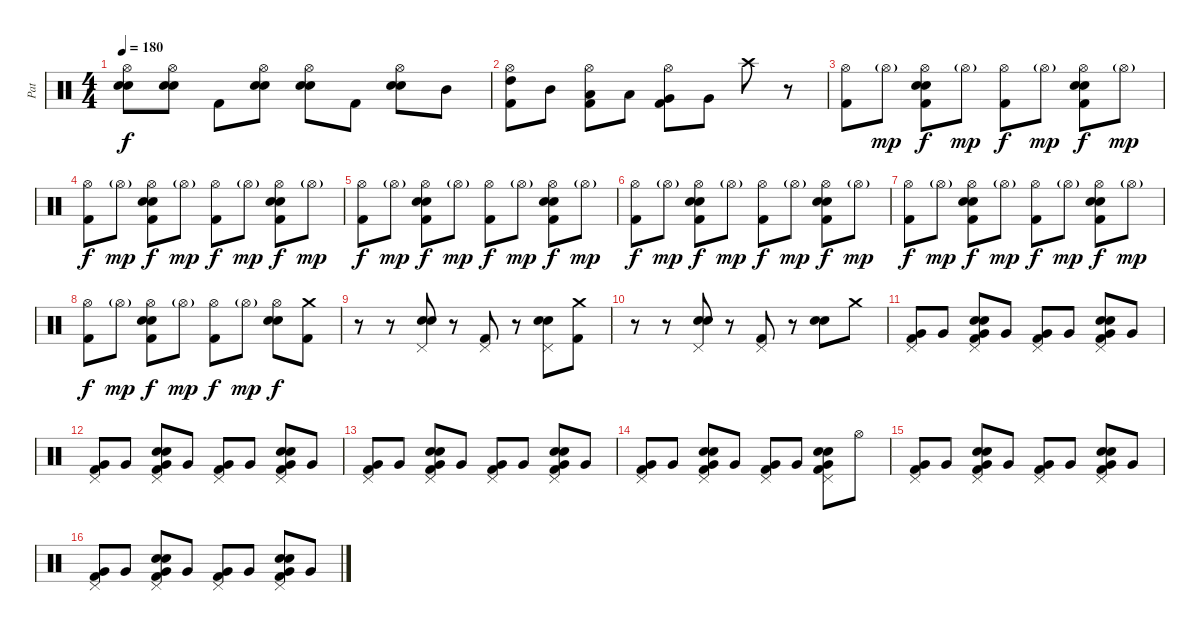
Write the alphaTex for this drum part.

\track ("Pat" "Pat") {instrument percussion}
\staff {score}
\articulation defaults
\ts (4 4)
\tempo 180
\clef neutral
\ks c
("Snare (hit) 2" "Electric Snare (hit)" "Hi-Hat (open)").8{dy f} ("Snare (hit) 2" "Electric Snare (hit)" "Hi-Hat (open)").8 "Kick (hit) 2".8 ("Snare (hit) 2" "Electric Snare (hit)" "Hi-Hat (open)").8 ("Snare (hit) 2" "Electric Snare (hit)" "Hi-Hat (open)").8 "Kick (hit) 2".8 ("Snare (hit) 2" "Electric Snare (hit)" "Hi-Hat (open)").8 "Mid Tom (hit)".8 |
("High Tom (hit)" "Hi-Hat (open)" "Kick (hit) 2").8 "Mid Tom (hit)".8 ("Hi-Hat (open)" "Low Tom (hit)" "Kick (hit) 2").8 "Low Tom (hit)".8 ("Hi-Hat (open)" "Very Low Tom (hit)" "Kick (hit) 2").8 "Very Low Tom (hit)".8 "Crash high (hit)".8 r.8 |
("Hi-Hat (open)" "Kick (hit) 2").8 "Hi-Hat (open)"{g}.8{dy mp} ("Hi-Hat (open)" "Snare (hit) 2" "Electric Snare (hit)" "Kick (hit) 2").8{dy f} "Hi-Hat (open)"{g}.8{dy mp} ("Hi-Hat (open)" "Kick (hit) 2").8{dy f} "Hi-Hat (open)"{g}.8{dy mp} ("Hi-Hat (open)" "Snare (hit) 2" "Electric Snare (hit)" "Kick (hit) 2").8{dy f} "Hi-Hat (open)"{g}.8{dy mp} |
("Hi-Hat (open)" "Kick (hit) 2").8{dy f} "Hi-Hat (open)"{g}.8{dy mp} ("Hi-Hat (open)" "Snare (hit) 2" "Electric Snare (hit)" "Kick (hit) 2").8{dy f} "Hi-Hat (open)"{g}.8{dy mp} ("Hi-Hat (open)" "Kick (hit) 2").8{dy f} "Hi-Hat (open)"{g}.8{dy mp} ("Hi-Hat (open)" "Snare (hit) 2" "Electric Snare (hit)" "Kick (hit) 2").8{dy f} "Hi-Hat (open)"{g}.8{dy mp} |
("Hi-Hat (open)" "Kick (hit) 2").8{dy f} "Hi-Hat (open)"{g}.8{dy mp} ("Hi-Hat (open)" "Snare (hit) 2" "Electric Snare (hit)" "Kick (hit) 2").8{dy f} "Hi-Hat (open)"{g}.8{dy mp} ("Hi-Hat (open)" "Kick (hit) 2").8{dy f} "Hi-Hat (open)"{g}.8{dy mp} ("Hi-Hat (open)" "Snare (hit) 2" "Electric Snare (hit)" "Kick (hit) 2").8{dy f} "Hi-Hat (open)"{g}.8{dy mp} |
("Hi-Hat (open)" "Kick (hit) 2").8{dy f} "Hi-Hat (open)"{g}.8{dy mp} ("Hi-Hat (open)" "Snare (hit) 2" "Electric Snare (hit)" "Kick (hit) 2").8{dy f} "Hi-Hat (open)"{g}.8{dy mp} ("Hi-Hat (open)" "Kick (hit) 2").8{dy f} "Hi-Hat (open)"{g}.8{dy mp} ("Hi-Hat (open)" "Snare (hit) 2" "Electric Snare (hit)" "Kick (hit) 2").8{dy f} "Hi-Hat (open)"{g}.8{dy mp} |
("Hi-Hat (open)" "Kick (hit) 2").8{dy f} "Hi-Hat (open)"{g}.8{dy mp} ("Hi-Hat (open)" "Snare (hit) 2" "Electric Snare (hit)" "Kick (hit) 2").8{dy f} "Hi-Hat (open)"{g}.8{dy mp} ("Hi-Hat (open)" "Kick (hit) 2").8{dy f} "Hi-Hat (open)"{g}.8{dy mp} ("Hi-Hat (open)" "Snare (hit) 2" "Electric Snare (hit)" "Kick (hit) 2").8{dy f} "Hi-Hat (open)"{g}.8{dy mp} |
("Hi-Hat (open)" "Kick (hit) 2").8{dy f} "Hi-Hat (open)"{g}.8{dy mp} ("Hi-Hat (open)" "Snare (hit) 2" "Electric Snare (hit)" "Kick (hit) 2").8{dy f} "Hi-Hat (open)"{g}.8{dy mp} ("Hi-Hat (open)" "Kick (hit) 2").8{dy f} "Hi-Hat (open)"{g}.8{dy mp} ("Hi-Hat (open)" "Snare (hit) 2" "Electric Snare (hit)").8{dy f} ("Crash medium (hit)" "Kick (hit) 2").8 |
r.8 r.8 ("Pedal Hi-Hat (hit)" "Snare (hit) 2" "Electric Snare (hit)").8 r.8 ("Pedal Hi-Hat (hit)" "Kick (hit) 2").8 r.8 ("Pedal Hi-Hat (hit)" "Snare (hit) 2" "Electric Snare (hit)").8 ("Crash medium (hit)" "Kick (hit) 2").8 |
r.8 r.8 ("Pedal Hi-Hat (hit)" "Snare (hit) 2" "Electric Snare (hit)").8 r.8 ("Pedal Hi-Hat (hit)" "Kick (hit) 2").8 r.8 ("Snare (hit) 2" "Electric Snare (hit)").8 "Crash medium (hit)".8 |
("Pedal Hi-Hat (hit)" "Very Low Tom (hit)" "Kick (hit) 2").8 "Very Low Tom (hit)".8 ("Pedal Hi-Hat (hit)" "Very Low Tom (hit)" "Snare (hit) 2" "Electric Snare (hit)" "Kick (hit) 2").8 "Very Low Tom (hit)".8 ("Pedal Hi-Hat (hit)" "Very Low Tom (hit)" "Kick (hit) 2").8 "Very Low Tom (hit)".8 ("Pedal Hi-Hat (hit)" "Very Low Tom (hit)" "Snare (hit) 2" "Electric Snare (hit)" "Kick (hit) 2").8 "Very Low Tom (hit)".8 |
("Pedal Hi-Hat (hit)" "Very Low Tom (hit)" "Kick (hit) 2").8 "Very Low Tom (hit)".8 ("Pedal Hi-Hat (hit)" "Very Low Tom (hit)" "Snare (hit) 2" "Electric Snare (hit)" "Kick (hit) 2").8 "Very Low Tom (hit)".8 ("Pedal Hi-Hat (hit)" "Very Low Tom (hit)" "Kick (hit) 2").8 "Very Low Tom (hit)".8 ("Pedal Hi-Hat (hit)" "Very Low Tom (hit)" "Snare (hit) 2" "Electric Snare (hit)" "Kick (hit) 2").8 "Very Low Tom (hit)".8 |
("Pedal Hi-Hat (hit)" "Very Low Tom (hit)" "Kick (hit) 2").8 "Very Low Tom (hit)".8 ("Pedal Hi-Hat (hit)" "Very Low Tom (hit)" "Snare (hit) 2" "Electric Snare (hit)" "Kick (hit) 2").8 "Very Low Tom (hit)".8 ("Pedal Hi-Hat (hit)" "Very Low Tom (hit)" "Kick (hit) 2").8 "Very Low Tom (hit)".8 ("Pedal Hi-Hat (hit)" "Very Low Tom (hit)" "Snare (hit) 2" "Electric Snare (hit)" "Kick (hit) 2").8 "Very Low Tom (hit)".8 |
("Pedal Hi-Hat (hit)" "Very Low Tom (hit)" "Kick (hit) 2").8 "Very Low Tom (hit)".8 ("Pedal Hi-Hat (hit)" "Very Low Tom (hit)" "Snare (hit) 2" "Electric Snare (hit)" "Kick (hit) 2").8 "Very Low Tom (hit)".8 ("Pedal Hi-Hat (hit)" "Very Low Tom (hit)" "Kick (hit) 2").8 "Very Low Tom (hit)".8 ("Pedal Hi-Hat (hit)" "Very Low Tom (hit)" "Snare (hit) 2" "Electric Snare (hit)" "Kick (hit) 2").8 "Hi-Hat (open)".8 |
("Pedal Hi-Hat (hit)" "Very Low Tom (hit)" "Kick (hit) 2").8 "Very Low Tom (hit)".8 ("Pedal Hi-Hat (hit)" "Very Low Tom (hit)" "Snare (hit) 2" "Electric Snare (hit)" "Kick (hit) 2").8 "Very Low Tom (hit)".8 ("Pedal Hi-Hat (hit)" "Very Low Tom (hit)" "Kick (hit) 2").8 "Very Low Tom (hit)".8 ("Pedal Hi-Hat (hit)" "Very Low Tom (hit)" "Snare (hit) 2" "Electric Snare (hit)" "Kick (hit) 2").8 "Very Low Tom (hit)".8 |
("Pedal Hi-Hat (hit)" "Very Low Tom (hit)" "Kick (hit) 2").8 "Very Low Tom (hit)".8 ("Pedal Hi-Hat (hit)" "Very Low Tom (hit)" "Snare (hit) 2" "Electric Snare (hit)" "Kick (hit) 2").8 "Very Low Tom (hit)".8 ("Pedal Hi-Hat (hit)" "Very Low Tom (hit)" "Kick (hit) 2").8 "Very Low Tom (hit)".8 ("Pedal Hi-Hat (hit)" "Very Low Tom (hit)" "Snare (hit) 2" "Electric Snare (hit)" "Kick (hit) 2").8 "Very Low Tom (hit)".8
